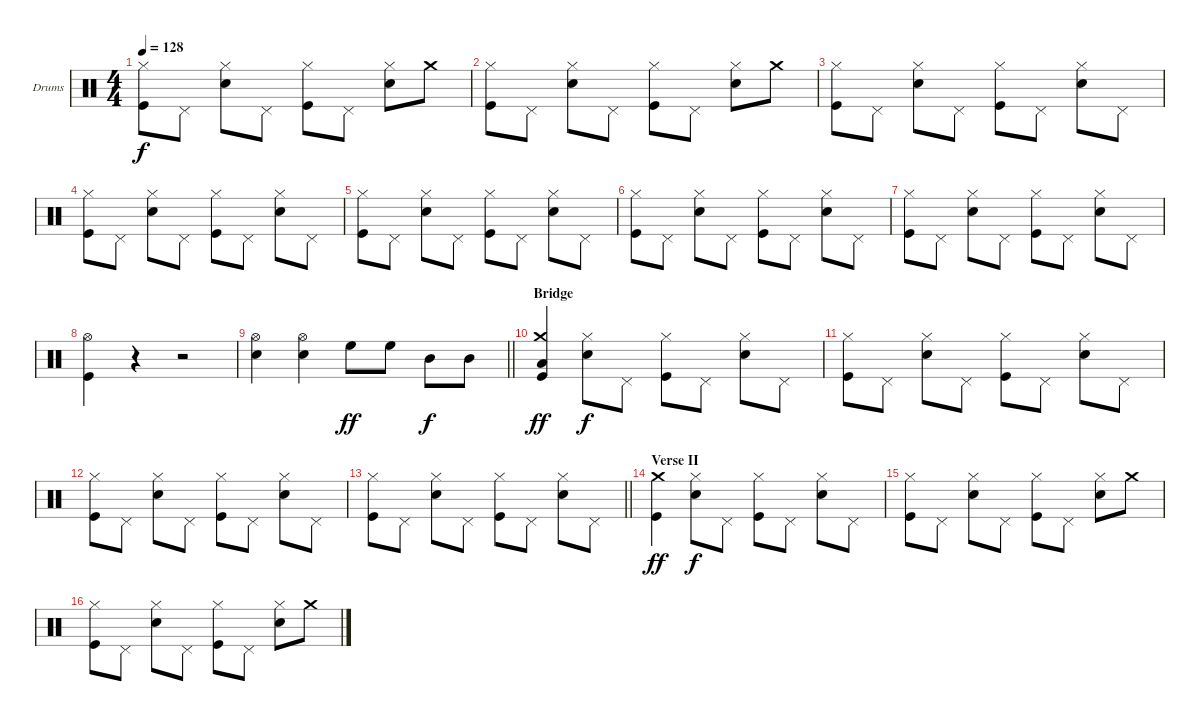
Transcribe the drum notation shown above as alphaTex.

\bracketExtendMode groupsimilarinstruments
\firstSystemTrackNameOrientation horizontal
\otherSystemsTrackNameOrientation horizontal
\track ("Drumkit" "Drums") {instrument percussion}
\staff {score}
\articulation defaults
\ts (4 4)
\tempo 128
\clef neutral
\ks c
("Hi-Hat (closed)" "Kick (hit)").8{dy f} "Pedal Hi-Hat (hit)".8 ("Hi-Hat (closed)" "Snare (hit) 2").8 "Pedal Hi-Hat (hit)".8 ("Hi-Hat (closed)" "Kick (hit)").8 "Pedal Hi-Hat (hit)".8 ("Hi-Hat (closed)" "Snare (hit) 2").8 "Crash medium (hit)".8 |
("Hi-Hat (closed)" "Kick (hit)").8 "Pedal Hi-Hat (hit)".8 ("Hi-Hat (closed)" "Snare (hit) 2").8 "Pedal Hi-Hat (hit)".8 ("Hi-Hat (closed)" "Kick (hit)").8 "Pedal Hi-Hat (hit)".8 ("Hi-Hat (closed)" "Snare (hit) 2").8 "Crash medium (hit)".8 |
("Hi-Hat (closed)" "Kick (hit)").8 "Pedal Hi-Hat (hit)".8 ("Hi-Hat (closed)" "Snare (hit) 2").8 "Pedal Hi-Hat (hit)".8 ("Hi-Hat (closed)" "Kick (hit)").8 "Pedal Hi-Hat (hit)".8 ("Hi-Hat (closed)" "Snare (hit) 2").8 "Pedal Hi-Hat (hit)".8 |
("Hi-Hat (closed)" "Kick (hit)").8 "Pedal Hi-Hat (hit)".8 ("Hi-Hat (closed)" "Snare (hit) 2").8 "Pedal Hi-Hat (hit)".8 ("Hi-Hat (closed)" "Kick (hit)").8 "Pedal Hi-Hat (hit)".8 ("Hi-Hat (closed)" "Snare (hit) 2").8 "Pedal Hi-Hat (hit)".8 |
("Hi-Hat (closed)" "Kick (hit)").8 "Pedal Hi-Hat (hit)".8 ("Hi-Hat (closed)" "Snare (hit) 2").8 "Pedal Hi-Hat (hit)".8 ("Hi-Hat (closed)" "Kick (hit)").8 "Pedal Hi-Hat (hit)".8 ("Hi-Hat (closed)" "Snare (hit) 2").8 "Pedal Hi-Hat (hit)".8 |
("Hi-Hat (closed)" "Kick (hit)").8 "Pedal Hi-Hat (hit)".8 ("Hi-Hat (closed)" "Snare (hit) 2").8 "Pedal Hi-Hat (hit)".8 ("Hi-Hat (closed)" "Kick (hit)").8 "Pedal Hi-Hat (hit)".8 ("Hi-Hat (closed)" "Snare (hit) 2").8 "Pedal Hi-Hat (hit)".8 |
("Hi-Hat (closed)" "Kick (hit)").8 "Pedal Hi-Hat (hit)".8 ("Hi-Hat (closed)" "Snare (hit) 2").8 "Pedal Hi-Hat (hit)".8 ("Hi-Hat (closed)" "Kick (hit)").8 "Pedal Hi-Hat (hit)".8 ("Hi-Hat (closed)" "Snare (hit) 2").8 "Pedal Hi-Hat (hit)".8 |
("Hi-Hat (open)" "Kick (hit)").4 r.4 r.2 |
\barLineRight lightlight
("Hi-Hat (open)" "Snare (hit) 2").4 ("Hi-Hat (open)" "Snare (hit) 2").4 "High Floor Tom (hit)".8{dy ff} "High Floor Tom (hit)".8 "Mid Tom (hit)".8{dy f} "Mid Tom (hit)".8 |
\section ("" "Bridge")
("Crash medium (hit)" "Low Tom (hit)" "Kick (hit)").4{dy ff} ("Hi-Hat (closed)" "Snare (hit) 2").8{dy f} "Pedal Hi-Hat (hit)".8 ("Hi-Hat (closed)" "Kick (hit)").8 "Pedal Hi-Hat (hit)".8 ("Hi-Hat (closed)" "Snare (hit) 2").8 "Pedal Hi-Hat (hit)".8 |
("Hi-Hat (closed)" "Kick (hit)").8 "Pedal Hi-Hat (hit)".8 ("Hi-Hat (closed)" "Snare (hit) 2").8 "Pedal Hi-Hat (hit)".8 ("Hi-Hat (closed)" "Kick (hit)").8 "Pedal Hi-Hat (hit)".8 ("Hi-Hat (closed)" "Snare (hit) 2").8 "Pedal Hi-Hat (hit)".8 |
("Hi-Hat (closed)" "Kick (hit)").8 "Pedal Hi-Hat (hit)".8 ("Hi-Hat (closed)" "Snare (hit) 2").8 "Pedal Hi-Hat (hit)".8 ("Hi-Hat (closed)" "Kick (hit)").8 "Pedal Hi-Hat (hit)".8 ("Hi-Hat (closed)" "Snare (hit) 2").8 "Pedal Hi-Hat (hit)".8 |
\barLineRight lightlight
("Hi-Hat (closed)" "Kick (hit)").8 "Pedal Hi-Hat (hit)".8 ("Hi-Hat (closed)" "Snare (hit) 2").8 "Pedal Hi-Hat (hit)".8 ("Hi-Hat (closed)" "Kick (hit)").8 "Pedal Hi-Hat (hit)".8 ("Hi-Hat (closed)" "Snare (hit) 2").8 "Pedal Hi-Hat (hit)".8 |
\section ("" "Verse II")
("Crash medium (hit)" "Kick (hit)").4{dy ff} ("Hi-Hat (closed)" "Snare (hit) 2").8{dy f} "Pedal Hi-Hat (hit)".8 ("Hi-Hat (closed)" "Kick (hit)").8 "Pedal Hi-Hat (hit)".8 ("Hi-Hat (closed)" "Snare (hit) 2").8 "Pedal Hi-Hat (hit)".8 |
("Hi-Hat (closed)" "Kick (hit)").8 "Pedal Hi-Hat (hit)".8 ("Hi-Hat (closed)" "Snare (hit) 2").8 "Pedal Hi-Hat (hit)".8 ("Hi-Hat (closed)" "Kick (hit)").8 "Pedal Hi-Hat (hit)".8 ("Hi-Hat (closed)" "Snare (hit) 2").8 "Crash medium (hit)".8 |
("Hi-Hat (closed)" "Kick (hit)").8 "Pedal Hi-Hat (hit)".8 ("Hi-Hat (closed)" "Snare (hit) 2").8 "Pedal Hi-Hat (hit)".8 ("Hi-Hat (closed)" "Kick (hit)").8 "Pedal Hi-Hat (hit)".8 ("Hi-Hat (closed)" "Snare (hit) 2").8 "Crash medium (hit)".8
